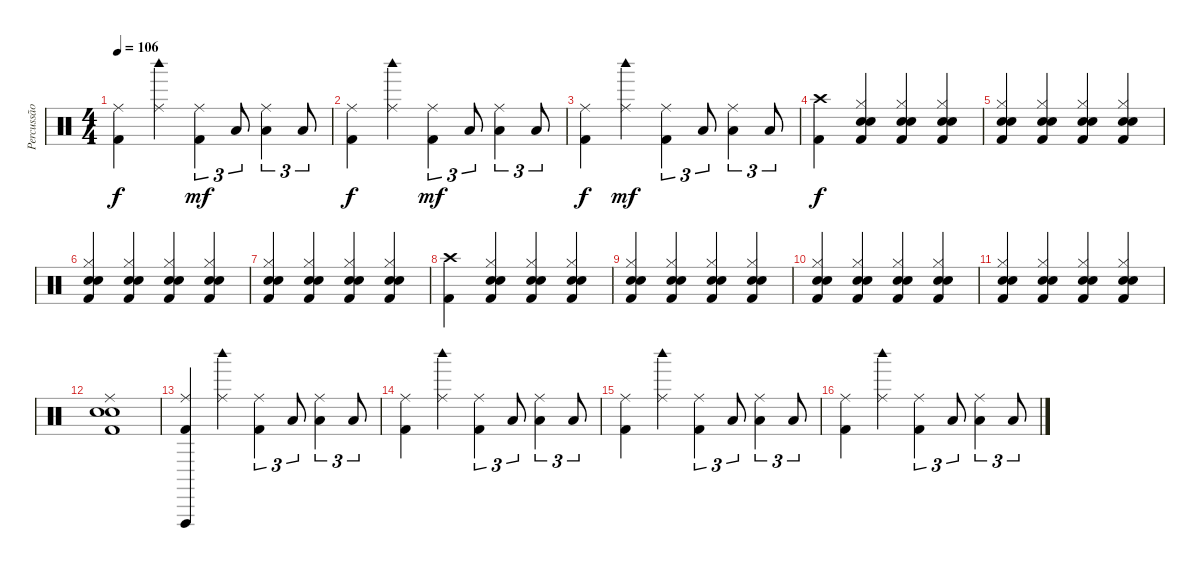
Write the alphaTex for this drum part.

\track ("Percussão" "Percussão") {instrument percussion}
\staff {score}
\articulation defaults
\ts (4 4)
\tempo 106
\clef neutral
\ks c
("Ride (middle)" "Kick (hit) 2").4{dy f} ("Ride (middle)" "Woodblock high (hit)").4 ("Ride (middle)" "Kick (hit) 2").4{tu (3 2) dy mf} "Low Floor Tom (hit)".8{tu (3 2)} ("Ride (middle)" "Low Floor Tom (hit)").4{tu (3 2)} "Low Floor Tom (hit)".8{tu (3 2)} |
("Ride (middle)" "Kick (hit) 2").4{dy f} ("Ride (middle)" "Woodblock high (hit)").4 ("Ride (middle)" "Kick (hit) 2").4{tu (3 2) dy mf} "Low Floor Tom (hit)".8{tu (3 2)} ("Ride (middle)" "Low Floor Tom (hit)").4{tu (3 2)} "Low Floor Tom (hit)".8{tu (3 2)} |
("Ride (middle)" "Kick (hit) 2").4{dy f} ("Ride (middle)" "Woodblock high (hit)").4{dy mf} ("Ride (middle)" "Kick (hit) 2").4{tu (3 2)} "Low Floor Tom (hit)".8{tu (3 2)} ("Ride (middle)" "Low Floor Tom (hit)").4{tu (3 2)} "Low Floor Tom (hit)".8{tu (3 2)} |
("Crash high (hit)" "Kick (hit) 2").4{dy f} ("Hi-Hat (closed)" "Snare (hit) 2" "Snare (hit) 2" "Kick (hit) 2").4 ("Hi-Hat (closed)" "Snare (hit) 2" "Snare (hit) 2" "Kick (hit) 2").4 ("Hi-Hat (closed)" "Snare (hit) 2" "Snare (hit) 2" "Kick (hit) 2").4 |
("Hi-Hat (closed)" "Snare (hit) 2" "Snare (hit) 2" "Kick (hit) 2").4 ("Hi-Hat (closed)" "Snare (hit) 2" "Snare (hit) 2" "Kick (hit) 2").4 ("Hi-Hat (closed)" "Snare (hit) 2" "Snare (hit) 2" "Kick (hit) 2").4 ("Hi-Hat (closed)" "Snare (hit) 2" "Snare (hit) 2" "Kick (hit) 2").4 |
("Hi-Hat (closed)" "Snare (hit) 2" "Snare (hit) 2" "Kick (hit) 2").4 ("Hi-Hat (closed)" "Snare (hit) 2" "Snare (hit) 2" "Kick (hit) 2").4 ("Hi-Hat (closed)" "Snare (hit) 2" "Snare (hit) 2" "Kick (hit) 2").4 ("Hi-Hat (closed)" "Snare (hit) 2" "Snare (hit) 2" "Kick (hit) 2").4 |
("Hi-Hat (closed)" "Snare (hit) 2" "Snare (hit) 2" "Kick (hit) 2").4 ("Hi-Hat (closed)" "Snare (hit) 2" "Snare (hit) 2" "Kick (hit) 2").4 ("Hi-Hat (closed)" "Snare (hit) 2" "Snare (hit) 2" "Kick (hit) 2").4 ("Hi-Hat (closed)" "Snare (hit) 2" "Snare (hit) 2" "Kick (hit) 2").4 |
("Crash high (hit)" "Kick (hit) 2").4 ("Hi-Hat (closed)" "Snare (hit) 2" "Snare (hit) 2" "Kick (hit) 2").4 ("Hi-Hat (closed)" "Snare (hit) 2" "Snare (hit) 2" "Kick (hit) 2").4 ("Hi-Hat (closed)" "Snare (hit) 2" "Snare (hit) 2" "Kick (hit) 2").4 |
("Hi-Hat (closed)" "Snare (hit) 2" "Snare (hit) 2" "Kick (hit) 2").4 ("Hi-Hat (closed)" "Snare (hit) 2" "Snare (hit) 2" "Kick (hit) 2").4 ("Hi-Hat (closed)" "Snare (hit) 2" "Snare (hit) 2" "Kick (hit) 2").4 ("Hi-Hat (closed)" "Snare (hit) 2" "Snare (hit) 2" "Kick (hit) 2").4 |
("Hi-Hat (closed)" "Snare (hit) 2" "Snare (hit) 2" "Kick (hit) 2").4 ("Hi-Hat (closed)" "Snare (hit) 2" "Snare (hit) 2" "Kick (hit) 2").4 ("Hi-Hat (closed)" "Snare (hit) 2" "Snare (hit) 2" "Kick (hit) 2").4 ("Hi-Hat (closed)" "Snare (hit) 2" "Snare (hit) 2" "Kick (hit) 2").4 |
("Hi-Hat (closed)" "Snare (hit) 2" "Snare (hit) 2" "Kick (hit) 2").4 ("Hi-Hat (closed)" "Snare (hit) 2" "Snare (hit) 2" "Kick (hit) 2").4 ("Hi-Hat (closed)" "Snare (hit) 2" "Snare (hit) 2" "Kick (hit) 2").4 ("Hi-Hat (closed)" "Snare (hit) 2" "Snare (hit) 2" "Kick (hit) 2").4 |
("Ride (middle)" "Snare (hit) 2" "Snare (hit) 2" "Kick (hit) 2").1 |
("Ride (middle)" "Vibraslap (hit)" "Kick (hit) 2").4 ("Ride (middle)" "Woodblock high (hit)").4 ("Ride (middle)" "Kick (hit) 2").4{tu (3 2)} "Low Floor Tom (hit)".8{tu (3 2)} ("Ride (middle)" "Low Floor Tom (hit)").4{tu (3 2)} "Low Floor Tom (hit)".8{tu (3 2)} |
("Ride (middle)" "Kick (hit) 2").4 ("Ride (middle)" "Woodblock high (hit)").4 ("Ride (middle)" "Kick (hit) 2").4{tu (3 2)} "Low Floor Tom (hit)".8{tu (3 2)} ("Ride (middle)" "Low Floor Tom (hit)").4{tu (3 2)} "Low Floor Tom (hit)".8{tu (3 2)} |
("Ride (middle)" "Kick (hit) 2").4 ("Ride (middle)" "Woodblock high (hit)").4 ("Ride (middle)" "Kick (hit) 2").4{tu (3 2)} "Low Floor Tom (hit)".8{tu (3 2)} ("Ride (middle)" "Low Floor Tom (hit)").4{tu (3 2)} "Low Floor Tom (hit)".8{tu (3 2)} |
("Ride (middle)" "Kick (hit) 2").4 ("Ride (middle)" "Woodblock high (hit)").4 ("Ride (middle)" "Kick (hit) 2").4{tu (3 2)} "Low Floor Tom (hit)".8{tu (3 2)} ("Ride (middle)" "Low Floor Tom (hit)").4{tu (3 2)} "Low Floor Tom (hit)".8{tu (3 2)}
